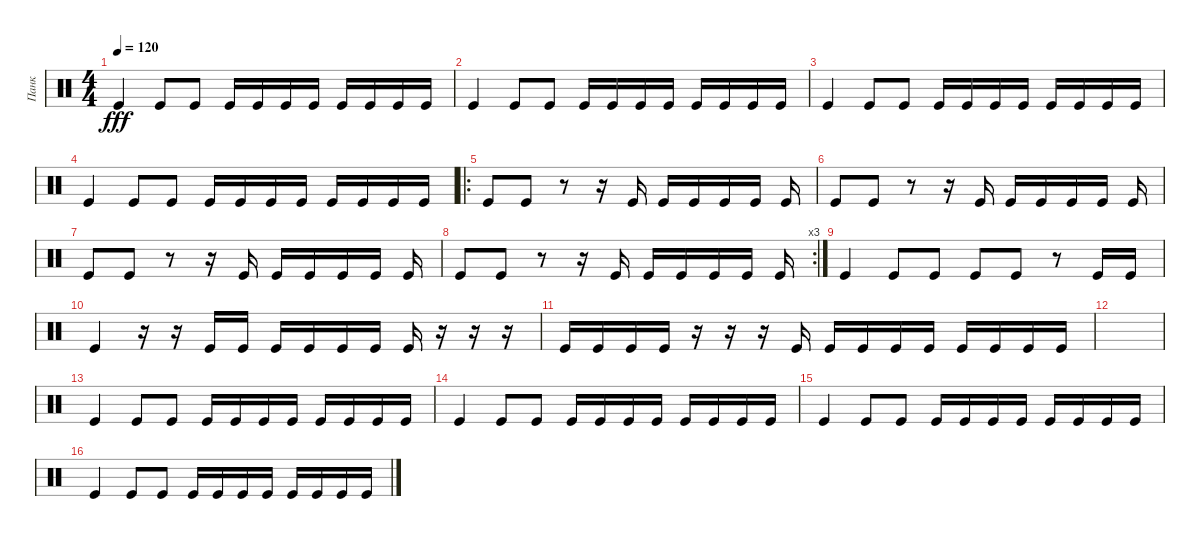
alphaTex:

\track ("Панк" "Панк") {instrument percussion}
\staff {score}
\articulation defaults
\ts (4 4)
\tempo 120
\clef neutral
\ks c "Kick (hit)".4{dy fff} "Kick (hit)".8 "Kick (hit)".8 "Kick (hit)".16 "Kick (hit)".16 "Kick (hit)".16 "Kick (hit)".16 "Kick (hit)".16 "Kick (hit)".16 "Kick (hit)".16 "Kick (hit)".16
|
"Kick (hit)".4 "Kick (hit)".8 "Kick (hit)".8 "Kick (hit)".16 "Kick (hit)".16 "Kick (hit)".16 "Kick (hit)".16 "Kick (hit)".16 "Kick (hit)".16 "Kick (hit)".16 "Kick (hit)".16 |
"Kick (hit)".4 "Kick (hit)".8 "Kick (hit)".8 "Kick (hit)".16 "Kick (hit)".16 "Kick (hit)".16 "Kick (hit)".16 "Kick (hit)".16 "Kick (hit)".16 "Kick (hit)".16 "Kick (hit)".16 |
"Kick (hit)".4 "Kick (hit)".8 "Kick (hit)".8 "Kick (hit)".16 "Kick (hit)".16 "Kick (hit)".16 "Kick (hit)".16 "Kick (hit)".16 "Kick (hit)".16 "Kick (hit)".16 "Kick (hit)".16 |
\ro "Kick (hit)".8 "Kick (hit)".8
r.8 r.16 "Kick (hit)".16 "Kick (hit)".16 "Kick (hit)".16 "Kick (hit)".16 "Kick (hit)".16 "Kick (hit)".16 |
"Kick (hit)".8 "Kick (hit)".8 r.8 r.16 "Kick (hit)".16 "Kick (hit)".16 "Kick (hit)".16 "Kick (hit)".16 "Kick (hit)".16 "Kick (hit)".16 |
"Kick (hit)".8 "Kick (hit)".8 r.8 r.16 "Kick (hit)".16 "Kick (hit)".16 "Kick (hit)".16 "Kick (hit)".16 "Kick (hit)".16 "Kick (hit)".16 |
\rc 3 "Kick (hit)".8 "Kick (hit)".8
r.8 r.16 "Kick (hit)".16 "Kick (hit)".16 "Kick (hit)".16 "Kick (hit)".16 "Kick (hit)".16 "Kick (hit)".16 |
"Kick (hit)".4 "Kick (hit)".8 "Kick (hit)".8 "Kick (hit)".8 "Kick (hit)".8 r.8 "Kick (hit)".16 "Kick (hit)".16 |
"Kick (hit)".4 r.16 r.16 "Kick (hit)".16 "Kick (hit)".16 "Kick (hit)".16 "Kick (hit)".16 "Kick (hit)".16 "Kick (hit)".16 "Kick (hit)".16 r.16 r.16 r.16 |
"Kick (hit)".16 "Kick (hit)".16 "Kick (hit)".16 "Kick (hit)".16 r.16 r.16 r.16 "Kick (hit)".16 "Kick (hit)".16 "Kick (hit)".16 "Kick (hit)".16 "Kick (hit)".16 "Kick (hit)".16 "Kick (hit)".16 "Kick (hit)".16 "Kick (hit)".16 |
|
"Kick (hit)".4 "Kick (hit)".8 "Kick (hit)".8 "Kick (hit)".16 "Kick (hit)".16 "Kick (hit)".16 "Kick (hit)".16 "Kick (hit)".16 "Kick (hit)".16 "Kick (hit)".16 "Kick (hit)".16 |
"Kick (hit)".4 "Kick (hit)".8 "Kick (hit)".8 "Kick (hit)".16 "Kick (hit)".16 "Kick (hit)".16 "Kick (hit)".16 "Kick (hit)".16 "Kick (hit)".16 "Kick (hit)".16 "Kick (hit)".16 |
"Kick (hit)".4 "Kick (hit)".8 "Kick (hit)".8 "Kick (hit)".16 "Kick (hit)".16 "Kick (hit)".16 "Kick (hit)".16 "Kick (hit)".16 "Kick (hit)".16 "Kick (hit)".16 "Kick (hit)".16 |
"Kick (hit)".4 "Kick (hit)".8 "Kick (hit)".8 "Kick (hit)".16 "Kick (hit)".16 "Kick (hit)".16 "Kick (hit)".16 "Kick (hit)".16 "Kick (hit)".16 "Kick (hit)".16 "Kick (hit)".16
